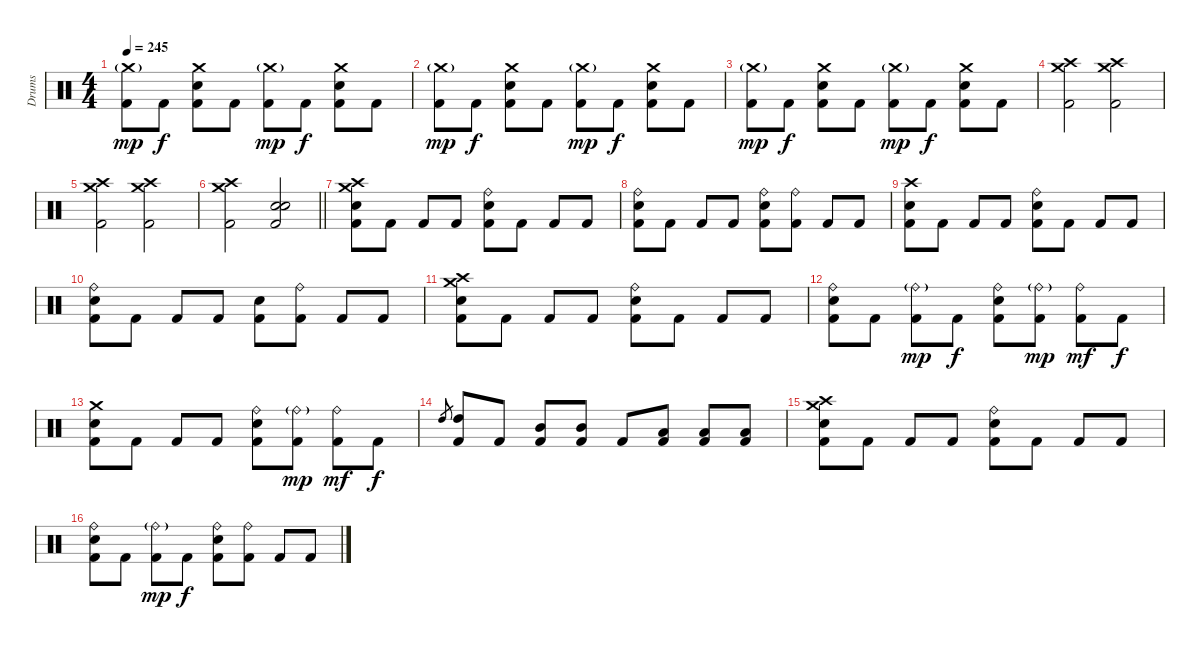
\track ("Drums" "Drums") {instrument percussion}
\staff {score}
\articulation defaults
\ts (4 4)
\tempo 245
\clef neutral
\ks c
("Crash medium (hit)"{g} "Kick (hit) 2").8{dy mp} "Kick (hit) 2".8{dy f} ("Crash medium (hit)" "Electric Snare (hit)" "Kick (hit) 2").8 "Kick (hit) 2".8 ("Crash medium (hit)"{g} "Kick (hit) 2").8{dy mp} "Kick (hit) 2".8{dy f} ("Crash medium (hit)" "Electric Snare (hit)" "Kick (hit) 2").8 "Kick (hit) 2".8 |
("Crash medium (hit)"{g} "Kick (hit) 2").8{dy mp} "Kick (hit) 2".8{dy f} ("Crash medium (hit)" "Electric Snare (hit)" "Kick (hit) 2").8 "Kick (hit) 2".8 ("Crash medium (hit)"{g} "Kick (hit) 2").8{dy mp} "Kick (hit) 2".8{dy f} ("Crash medium (hit)" "Electric Snare (hit)" "Kick (hit) 2").8 "Kick (hit) 2".8 |
("Crash medium (hit)"{g} "Kick (hit) 2").8{dy mp} "Kick (hit) 2".8{dy f} ("Crash medium (hit)" "Electric Snare (hit)" "Kick (hit) 2").8 "Kick (hit) 2".8 ("Crash medium (hit)"{g} "Kick (hit) 2").8{dy mp} "Kick (hit) 2".8{dy f} ("Crash medium (hit)" "Electric Snare (hit)" "Kick (hit) 2").8 "Kick (hit) 2".8 |
("Crash high (hit)" "Crash medium (hit)" "Kick (hit) 2").2 ("Crash high (hit)" "Crash medium (hit)" "Kick (hit) 2").2 |
("Crash high (hit)" "Crash medium (hit)" "Kick (hit) 2").2 ("Crash high (hit)" "Crash medium (hit)" "Kick (hit) 2").2 |
\barLineRight lightlight
("Crash high (hit)" "Crash medium (hit)" "Kick (hit) 2").2 ("Snare (hit) 2" "Electric Snare (hit)" "Kick (hit) 2").2 |
("Crash high (hit)" "Crash medium (hit)" "Electric Snare (hit)" "Kick (hit) 2").8 "Kick (hit) 2".8 "Kick (hit) 2".8 "Kick (hit) 2".8 ("Ride (bell)" "Electric Snare (hit)" "Kick (hit) 2").8 "Kick (hit) 2".8 "Kick (hit) 2".8 "Kick (hit) 2".8 |
("Ride (bell)" "Electric Snare (hit)" "Kick (hit) 2").8 "Kick (hit) 2".8 "Kick (hit) 2".8 "Kick (hit) 2".8 ("Ride (bell)" "Electric Snare (hit)" "Kick (hit) 2").8 ("Ride (bell)" "Kick (hit) 2").8 "Kick (hit) 2".8 "Kick (hit) 2".8 |
("Crash high (hit)" "Electric Snare (hit)" "Kick (hit) 2").8 "Kick (hit) 2".8 "Kick (hit) 2".8 "Kick (hit) 2".8 ("Ride (bell)" "Electric Snare (hit)" "Kick (hit) 2").8 "Kick (hit) 2".8 "Kick (hit) 2".8 "Kick (hit) 2".8 |
("Ride (bell)" "Electric Snare (hit)" "Kick (hit) 2").8 "Kick (hit) 2".8 "Kick (hit) 2".8 "Kick (hit) 2".8 ("Electric Snare (hit)" "Kick (hit) 2").8 ("Ride (bell)" "Kick (hit) 2").8 "Kick (hit) 2".8 "Kick (hit) 2".8 |
("Crash high (hit)" "Crash medium (hit)" "Electric Snare (hit)" "Kick (hit) 2").8 "Kick (hit) 2".8 "Kick (hit) 2".8 "Kick (hit) 2".8 ("Ride (bell)" "Electric Snare (hit)" "Kick (hit) 2").8 "Kick (hit) 2".8 "Kick (hit) 2".8 "Kick (hit) 2".8 |
("Ride (bell)" "Electric Snare (hit)" "Kick (hit) 2").8 "Kick (hit) 2".8 ("Ride (bell)"{g} "Kick (hit) 2").8{dy mp} "Kick (hit) 2".8{dy f} ("Ride (bell)" "Electric Snare (hit)" "Kick (hit) 2").8 ("Ride (bell)"{g} "Kick (hit) 2").8{dy mp} ("Ride (bell)" "Kick (hit) 2").8{dy mf} "Kick (hit) 2".8{dy f} |
("Crash medium (hit)" "Electric Snare (hit)" "Kick (hit) 2").8 "Kick (hit) 2".8 "Kick (hit) 2".8 "Kick (hit) 2".8 ("Ride (bell)" "Electric Snare (hit)" "Kick (hit) 2").8 ("Ride (bell)"{g} "Kick (hit) 2").8{dy mp} ("Ride (bell)" "Kick (hit) 2").8{dy mf} "Kick (hit) 2".8{dy f} |
"High Tom (hit)".8{gr} ("High Tom (hit)" "Kick (hit) 2").8 "Kick (hit) 2".8 ("Mid Tom (hit)" "Kick (hit) 2").8 ("Mid Tom (hit)" "Kick (hit) 2").8 "Kick (hit) 2".8 ("Low Tom (hit)" "Kick (hit) 2").8 ("Low Tom (hit)" "Kick (hit) 2").8 ("Low Tom (hit)" "Kick (hit) 2").8 |
("Crash high (hit)" "Crash medium (hit)" "Electric Snare (hit)" "Kick (hit) 2").8 "Kick (hit) 2".8 "Kick (hit) 2".8 "Kick (hit) 2".8 ("Ride (bell)" "Electric Snare (hit)" "Kick (hit) 2").8 "Kick (hit) 2".8 "Kick (hit) 2".8 "Kick (hit) 2".8 |
("Ride (bell)" "Electric Snare (hit)" "Kick (hit) 2").8 "Kick (hit) 2".8 ("Ride (bell)"{g} "Kick (hit) 2").8{dy mp} "Kick (hit) 2".8{dy f} ("Ride (bell)" "Electric Snare (hit)" "Kick (hit) 2").8 ("Ride (bell)" "Kick (hit) 2").8 "Kick (hit) 2".8 "Kick (hit) 2".8
